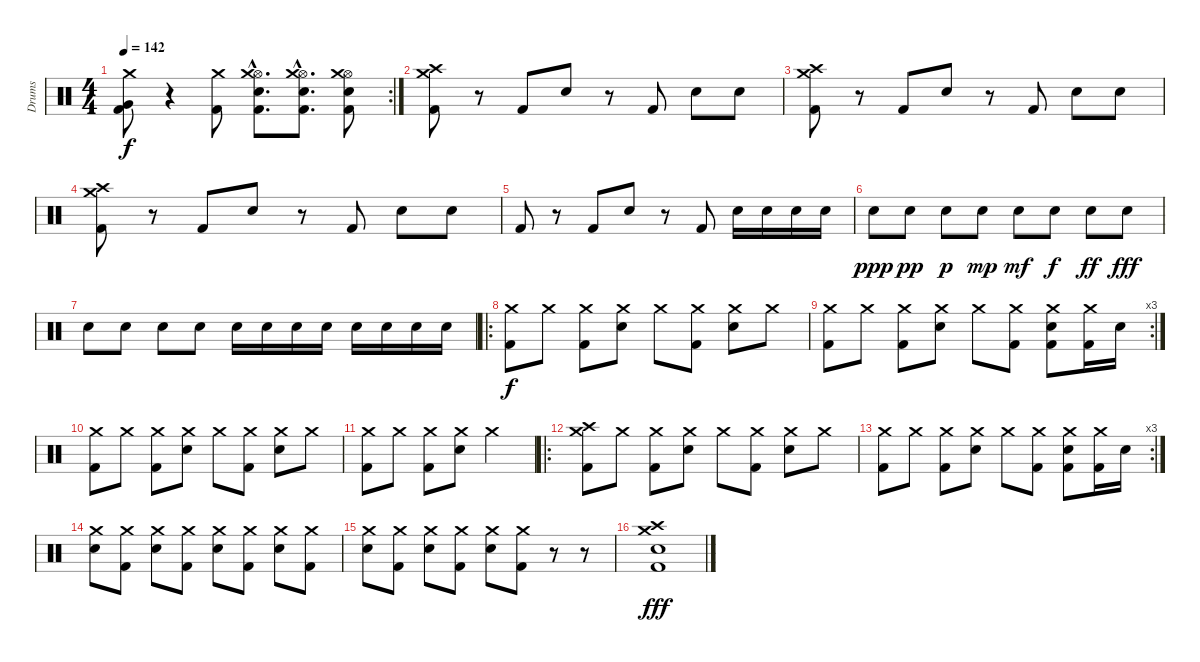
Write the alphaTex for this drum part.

\track ("Drums" "Drums") {instrument percussion}
\staff {score}
\articulation defaults
\rc 2
\ts (4 4)
\tempo 142
\clef neutral
\ks c
("Crash medium (hit)" "Very Low Tom (hit)" "Kick (hit) 2").8{dy f} r.4 ("Crash medium (hit)" "Kick (hit) 2").8 ("Hi-Hat (open)"{hac} "Crash medium (hit)"{hac} "Snare (hit) 2"{hac} "Kick (hit) 2"{hac}).8{d} ("Hi-Hat (open)"{hac} "Crash medium (hit)"{hac} "Snare (hit) 2"{hac} "Kick (hit) 2"{hac}).8{d} ("Hi-Hat (open)" "Crash medium (hit)" "Snare (hit) 2" "Kick (hit) 2").8 |
("Crash high (hit)" "Crash medium (hit)" "Kick (hit) 2").8 r.8 "Kick (hit) 2".8 "Snare (hit) 2".8 r.8 "Kick (hit) 2".8 "Snare (hit) 2".8 "Snare (hit) 2".8 |
("Crash high (hit)" "Crash medium (hit)" "Kick (hit) 2").8 r.8 "Kick (hit) 2".8 "Snare (hit) 2".8 r.8 "Kick (hit) 2".8 "Snare (hit) 2".8 "Snare (hit) 2".8 |
("Crash high (hit)" "Crash medium (hit)" "Kick (hit) 2").8 r.8 "Kick (hit) 2".8 "Snare (hit) 2".8 r.8 "Kick (hit) 2".8 "Snare (hit) 2".8 "Snare (hit) 2".8 |
"Kick (hit) 2".8 r.8 "Kick (hit) 2".8 "Snare (hit) 2".8 r.8 "Kick (hit) 2".8 "Snare (hit) 2".16 "Snare (hit) 2".16 "Snare (hit) 2".16 "Snare (hit) 2".16 |
"Snare (hit) 2".8{dy ppp} "Snare (hit) 2".8{dy pp} "Snare (hit) 2".8{dy p} "Snare (hit) 2".8{dy mp} "Snare (hit) 2".8{dy mf} "Snare (hit) 2".8{dy f} "Snare (hit) 2".8{dy ff} "Snare (hit) 2".8{dy fff} |
"Snare (hit) 2".8 "Snare (hit) 2".8 "Snare (hit) 2".8 "Snare (hit) 2".8 "Snare (hit) 2".16 "Snare (hit) 2".16 "Snare (hit) 2".16 "Snare (hit) 2".16 "Snare (hit) 2".16 "Snare (hit) 2".16 "Snare (hit) 2".16 "Snare (hit) 2".16 |
\ro
("Crash medium (hit)" "Kick (hit) 2").8{dy f} "Crash medium (hit)".8 ("Crash medium (hit)" "Kick (hit) 2").8 ("Crash medium (hit)" "Snare (hit) 2").8 "Crash medium (hit)".8 ("Crash medium (hit)" "Kick (hit) 2").8 ("Crash medium (hit)" "Snare (hit) 2").8 "Crash medium (hit)".8 |
\rc 3
("Crash medium (hit)" "Kick (hit) 2").8 "Crash medium (hit)".8 ("Crash medium (hit)" "Kick (hit) 2").8 ("Crash medium (hit)" "Snare (hit) 2").8 "Crash medium (hit)".8 ("Crash medium (hit)" "Kick (hit) 2").8 ("Crash medium (hit)" "Snare (hit) 2" "Kick (hit) 2").8 ("Crash medium (hit)" "Kick (hit) 2").16 "Snare (hit) 2".16 |
("Crash medium (hit)" "Kick (hit) 2").8 "Crash medium (hit)".8 ("Crash medium (hit)" "Kick (hit) 2").8 ("Crash medium (hit)" "Snare (hit) 2").8 "Crash medium (hit)".8 ("Crash medium (hit)" "Kick (hit) 2").8 ("Crash medium (hit)" "Snare (hit) 2").8 "Crash medium (hit)".8 |
("Crash medium (hit)" "Kick (hit) 2").8 "Crash medium (hit)".8 ("Crash medium (hit)" "Kick (hit) 2").8 ("Crash medium (hit)" "Snare (hit) 2").8 "Crash medium (hit)".2 |
\ro
("Crash high (hit)" "Crash medium (hit)" "Kick (hit) 2").8 "Crash medium (hit)".8 ("Crash medium (hit)" "Kick (hit) 2").8 ("Crash medium (hit)" "Snare (hit) 2").8 "Crash medium (hit)".8 ("Crash medium (hit)" "Kick (hit) 2").8 ("Crash medium (hit)" "Snare (hit) 2").8 "Crash medium (hit)".8 |
\rc 3
("Crash medium (hit)" "Kick (hit) 2").8 "Crash medium (hit)".8 ("Crash medium (hit)" "Kick (hit) 2").8 ("Crash medium (hit)" "Snare (hit) 2").8 "Crash medium (hit)".8 ("Crash medium (hit)" "Kick (hit) 2").8 ("Crash medium (hit)" "Snare (hit) 2" "Kick (hit) 2").8 ("Crash medium (hit)" "Kick (hit) 2").16 "Snare (hit) 2".16 |
("Crash medium (hit)" "Snare (hit) 2").8 ("Crash medium (hit)" "Kick (hit) 2").8 ("Crash medium (hit)" "Snare (hit) 2").8 ("Crash medium (hit)" "Kick (hit) 2").8 ("Crash medium (hit)" "Snare (hit) 2").8 ("Crash medium (hit)" "Kick (hit) 2").8 ("Crash medium (hit)" "Snare (hit) 2").8 ("Crash medium (hit)" "Kick (hit) 2").8 |
("Crash medium (hit)" "Snare (hit) 2").8 ("Crash medium (hit)" "Kick (hit) 2").8 ("Crash medium (hit)" "Snare (hit) 2").8 ("Crash medium (hit)" "Kick (hit) 2").8 ("Crash medium (hit)" "Snare (hit) 2").8 ("Crash medium (hit)" "Kick (hit) 2").8 r.8 r.8 |
("Crash high (hit)" "Crash medium (hit)" "Snare (hit) 2" "Kick (hit) 2").1{dy fff}
